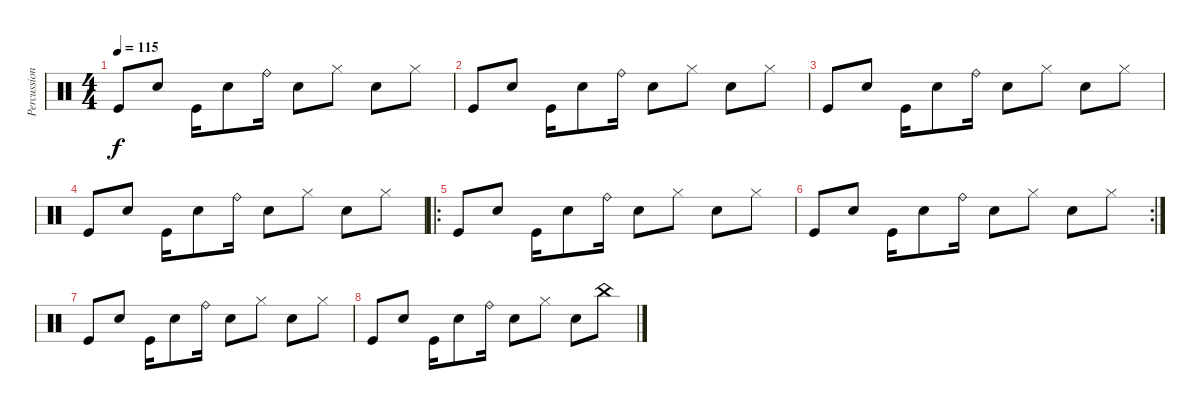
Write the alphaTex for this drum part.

\track ("Percussions" "Percussion") {instrument percussion}
\staff {score}
\articulation defaults
\ts (4 4)
\tempo 115
\clef neutral
\ks c "Kick (hit)".8{dy f} "Electric Snare (hit)".8 "Kick (hit)".16 "Electric Snare (hit)".8 "Ride (bell)".16 "Electric Snare (hit)".8 "Hi-Hat (closed)".8 "Electric Snare (hit)".8 "Hi-Hat (closed)".8
|
"Kick (hit)".8 "Electric Snare (hit)".8 "Kick (hit)".16 "Electric Snare (hit)".8 "Ride (bell)".16 "Electric Snare (hit)".8 "Hi-Hat (closed)".8 "Electric Snare (hit)".8 "Hi-Hat (closed)".8 |
"Kick (hit)".8 "Electric Snare (hit)".8 "Kick (hit)".16 "Electric Snare (hit)".8 "Ride (bell)".16 "Electric Snare (hit)".8 "Hi-Hat (closed)".8 "Electric Snare (hit)".8 "Hi-Hat (closed)".8 |
"Kick (hit)".8 "Electric Snare (hit)".8 "Kick (hit)".16 "Electric Snare (hit)".8 "Ride (bell)".16 "Electric Snare (hit)".8 "Hi-Hat (closed)".8 "Electric Snare (hit)".8 "Hi-Hat (closed)".8 |
\ro "Kick (hit)".8 "Electric Snare (hit)".8 "Kick (hit)".16 "Electric Snare (hit)".8 "Ride (bell)".16 "Electric Snare (hit)".8 "Hi-Hat (closed)".8 "Electric Snare (hit)".8 "Hi-Hat (closed)".8
|
\rc 2 "Kick (hit)".8 "Electric Snare (hit)".8 "Kick (hit)".16 "Electric Snare (hit)".8 "Ride (bell)".16 "Electric Snare (hit)".8 "Hi-Hat (closed)".8 "Electric Snare (hit)".8 "Hi-Hat (closed)".8
|
"Kick (hit)".8 "Electric Snare (hit)".8 "Kick (hit)".16 "Electric Snare (hit)".8 "Ride (bell)".16 "Electric Snare (hit)".8 "Hi-Hat (closed)".8 "Electric Snare (hit)".8 "Hi-Hat (closed)".8 |
"Kick (hit)".8 "Electric Snare (hit)".8 "Kick (hit)".16 "Electric Snare (hit)".8 "Ride (bell)".16 "Electric Snare (hit)".8 "Hi-Hat (closed)".8 "Electric Snare (hit)".8 "China (hit)".8
